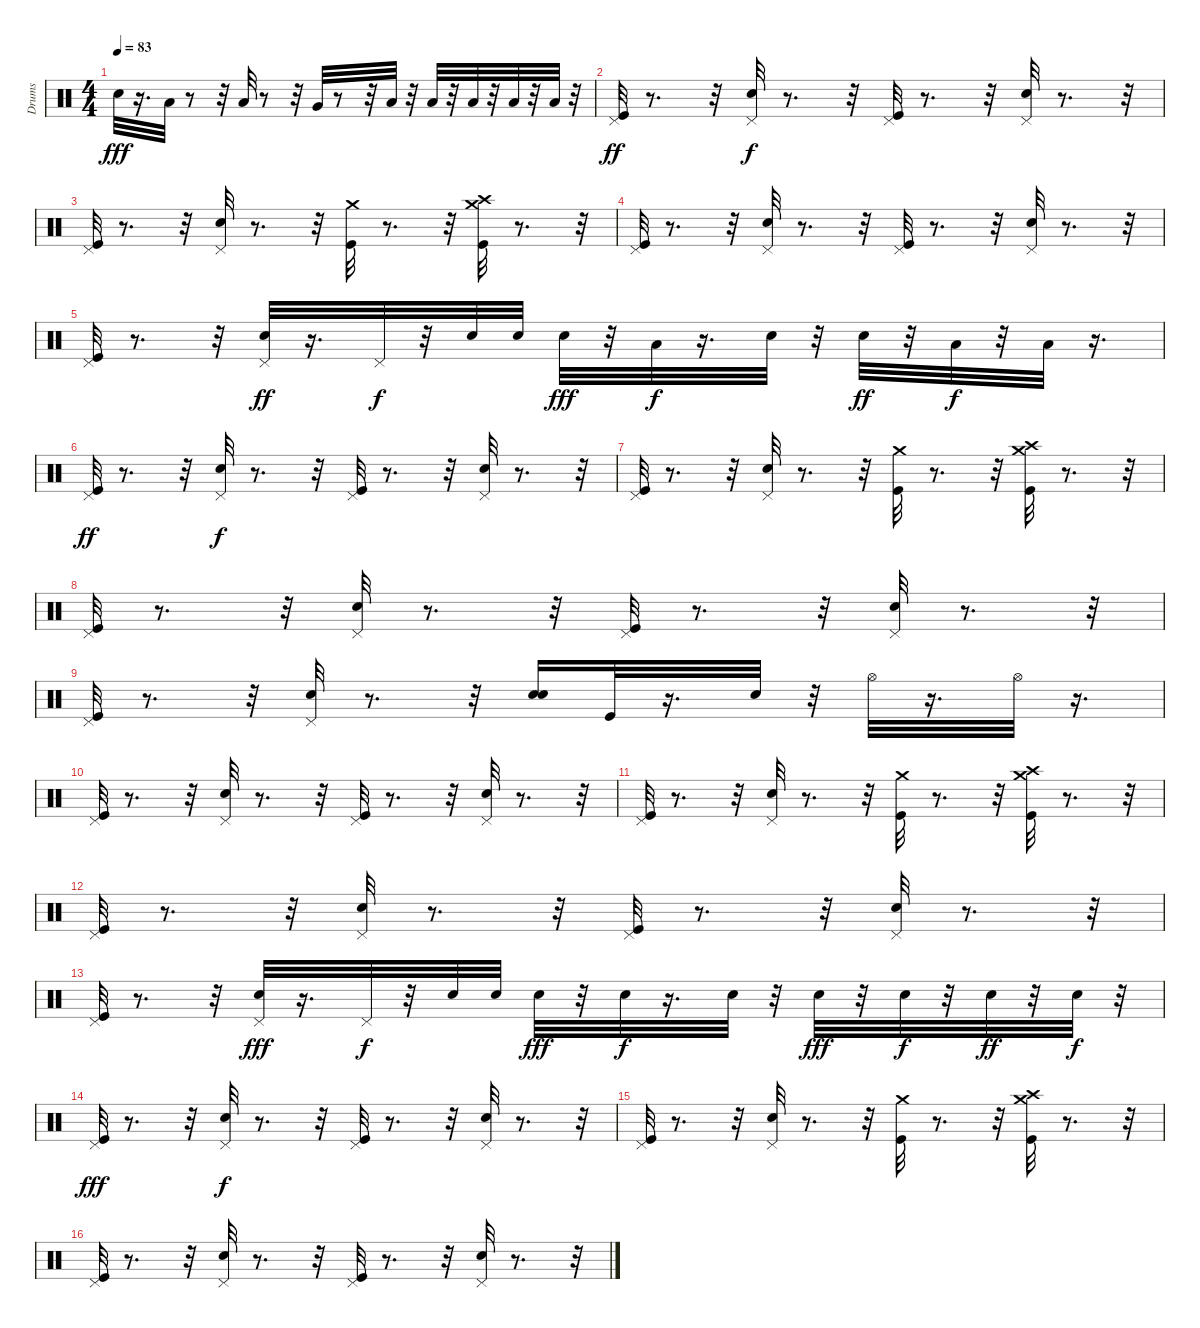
\track ("Drums" "Drums") {instrument percussion}
\staff {score}
\articulation defaults
\ts (4 4)
\tempo 83
\clef neutral
\ks c "Snare (hit) 2".32{dy fff}
r.16{d} "Low Tom (hit)".32 r.8 r.32 "Low Tom (hit)".32 r.8 r.32 "Very Low Tom (hit)".32 r.8 r.32 "Low Floor Tom (hit)".32 r.32 "Low Floor Tom (hit)".32 r.32 "Low Floor Tom (hit)".32 r.32 "Low Floor Tom (hit)".32 r.32 "Low Floor Tom (hit)".32 r.32 |
("Kick (hit)" "Pedal Hi-Hat (hit)").32{dy ff} r.8{d} r.32 ("Pedal Hi-Hat (hit)" "Snare (hit) 2").32{dy f} r.8{d} r.32 ("Kick (hit)" "Pedal Hi-Hat (hit)").32 r.8{d} r.32 ("Pedal Hi-Hat (hit)" "Snare (hit) 2").32 r.8{d} r.32 |
("Pedal Hi-Hat (hit)" "Kick (hit)").32 r.8{d} r.32 ("Pedal Hi-Hat (hit)" "Snare (hit) 2").32 r.8{d} r.32 ("Crash medium (hit)" "Kick (hit)").32 r.8{d} r.32 ("Crash medium (hit)" "Crash high (hit)" "Kick (hit)").32 r.8{d} r.32 |
("Pedal Hi-Hat (hit)" "Kick (hit)").32 r.8{d} r.32 ("Pedal Hi-Hat (hit)" "Snare (hit) 2").32 r.8{d} r.32 ("Pedal Hi-Hat (hit)" "Kick (hit)").32 r.8{d} r.32 ("Pedal Hi-Hat (hit)" "Snare (hit) 2").32 r.8{d} r.32 |
("Pedal Hi-Hat (hit)" "Kick (hit)").32 r.8{d} r.32 ("Snare (hit) 2" "Pedal Hi-Hat (hit)").32{dy ff} r.16{d} "Pedal Hi-Hat (hit)".32{dy f} r.32 "Snare (hit) 2".32 "Snare (hit) 2".32 "Snare (hit) 2".32{dy fff} r.32 "Low Tom (hit)".32{dy f} r.16{d} "Snare (hit) 2".32 r.32 "Snare (hit) 2".32{dy ff} r.32 "Low Tom (hit)".32{dy f} r.32 "Low Tom (hit)".32 r.16{d} |
("Kick (hit)" "Pedal Hi-Hat (hit)").32{dy ff} r.8{d} r.32 ("Pedal Hi-Hat (hit)" "Snare (hit) 2").32{dy f} r.8{d} r.32 ("Kick (hit)" "Pedal Hi-Hat (hit)").32 r.8{d} r.32 ("Pedal Hi-Hat (hit)" "Snare (hit) 2").32 r.8{d} r.32 |
("Pedal Hi-Hat (hit)" "Kick (hit)").32 r.8{d} r.32 ("Pedal Hi-Hat (hit)" "Snare (hit) 2").32 r.8{d} r.32 ("Crash medium (hit)" "Kick (hit)").32 r.8{d} r.32 ("Crash medium (hit)" "Crash high (hit)" "Kick (hit)").32 r.8{d} r.32 |
("Pedal Hi-Hat (hit)" "Kick (hit)").32 r.8{d} r.32 ("Pedal Hi-Hat (hit)" "Snare (hit) 2").32 r.8{d} r.32 ("Pedal Hi-Hat (hit)" "Kick (hit)").32 r.8{d} r.32 ("Pedal Hi-Hat (hit)" "Snare (hit) 2").32 r.8{d} r.32 |
("Pedal Hi-Hat (hit)" "Kick (hit)").32 r.8{d} r.32 ("Snare (hit) 2" "Pedal Hi-Hat (hit)").32 r.8{d} r.32 ("Snare (hit) 2" "Snare (hit) 2").16 "Kick (hit)".32 r.16{d} "Snare (hit) 2".32 r.32 "Hi-Hat (open)".32 r.16{d} "Hi-Hat (open)".32 r.16{d} |
("Kick (hit)" "Pedal Hi-Hat (hit)").32 r.8{d} r.32 ("Pedal Hi-Hat (hit)" "Snare (hit) 2").32 r.8{d} r.32 ("Kick (hit)" "Pedal Hi-Hat (hit)").32 r.8{d} r.32 ("Pedal Hi-Hat (hit)" "Snare (hit) 2").32 r.8{d} r.32 |
("Pedal Hi-Hat (hit)" "Kick (hit)").32 r.8{d} r.32 ("Pedal Hi-Hat (hit)" "Snare (hit) 2").32 r.8{d} r.32 ("Crash medium (hit)" "Kick (hit)").32 r.8{d} r.32 ("Crash medium (hit)" "Crash high (hit)" "Kick (hit)").32 r.8{d} r.32 |
("Pedal Hi-Hat (hit)" "Kick (hit)").32 r.8{d} r.32 ("Pedal Hi-Hat (hit)" "Snare (hit) 2").32 r.8{d} r.32 ("Pedal Hi-Hat (hit)" "Kick (hit)").32 r.8{d} r.32 ("Pedal Hi-Hat (hit)" "Snare (hit) 2").32 r.8{d} r.32 |
("Pedal Hi-Hat (hit)" "Kick (hit)").32 r.8{d} r.32 ("Snare (hit) 2" "Pedal Hi-Hat (hit)").32{dy fff} r.16{d} "Pedal Hi-Hat (hit)".32{dy f} r.32 "Snare (hit) 2".32 "Snare (hit) 2".32 "Snare (hit) 2".32{dy fff} r.32 "Snare (hit) 2".32{dy f} r.16{d} "Snare (hit) 2".32 r.32 "Snare (hit) 2".32{dy fff} r.32 "Snare (hit) 2".32{dy f} r.32 "Snare (hit) 2".32{dy ff} r.32 "Snare (hit) 2".32{dy f} r.32 |
("Kick (hit)" "Pedal Hi-Hat (hit)").32{dy fff} r.8{d} r.32 ("Pedal Hi-Hat (hit)" "Snare (hit) 2").32{dy f} r.8{d} r.32 ("Kick (hit)" "Pedal Hi-Hat (hit)").32 r.8{d} r.32 ("Pedal Hi-Hat (hit)" "Snare (hit) 2").32 r.8{d} r.32 |
("Pedal Hi-Hat (hit)" "Kick (hit)").32 r.8{d} r.32 ("Pedal Hi-Hat (hit)" "Snare (hit) 2").32 r.8{d} r.32 ("Crash medium (hit)" "Kick (hit)").32 r.8{d} r.32 ("Crash medium (hit)" "Crash high (hit)" "Kick (hit)").32 r.8{d} r.32 |
("Pedal Hi-Hat (hit)" "Kick (hit)").32 r.8{d} r.32 ("Pedal Hi-Hat (hit)" "Snare (hit) 2").32 r.8{d} r.32 ("Pedal Hi-Hat (hit)" "Kick (hit)").32 r.8{d} r.32 ("Pedal Hi-Hat (hit)" "Snare (hit) 2").32 r.8{d} r.32
